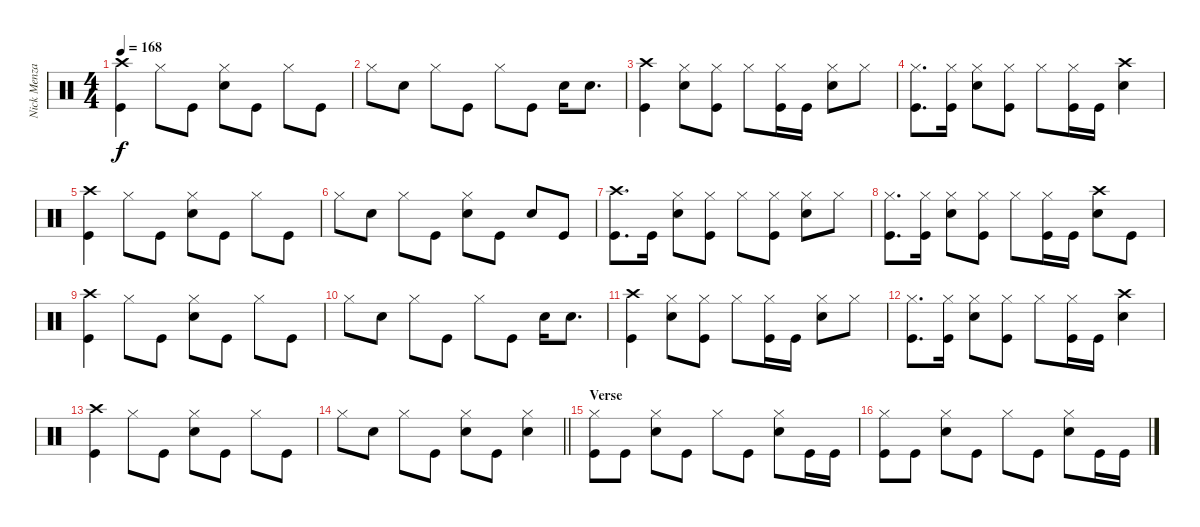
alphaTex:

\track ("Nick Menza" "Nick Menza") {instrument percussion}
\staff {score}
\articulation defaults
\ts (4 4)
\tempo 168
\clef neutral
\ks c
("Kick (hit)" "Crash high (hit)").4{dy f} "Hi-Hat (closed)".8 "Kick (hit)".8 ("Hi-Hat (closed)" "Snare (hit) 2").8 "Kick (hit)".8 "Hi-Hat (closed)".8 "Kick (hit)".8 |
"Hi-Hat (closed)".8 "Snare (hit) 2".8 "Hi-Hat (closed)".8 "Kick (hit)".8 "Hi-Hat (closed)".8 "Kick (hit)".8 "Snare (hit) 2".16 "Snare (hit) 2".8{d} |
("Kick (hit)" "Crash high (hit)").4 ("Hi-Hat (closed)" "Snare (hit) 2").8 ("Kick (hit)" "Hi-Hat (closed)").8 "Hi-Hat (closed)".8 ("Kick (hit)" "Hi-Hat (closed)").16 "Kick (hit)".16 ("Hi-Hat (closed)" "Snare (hit) 2").8 "Hi-Hat (closed)".8 |
("Kick (hit)" "Hi-Hat (closed)").8{d} ("Kick (hit)" "Hi-Hat (closed)").16 ("Hi-Hat (closed)" "Snare (hit) 2").8 ("Kick (hit)" "Hi-Hat (closed)").8 "Hi-Hat (closed)".8 ("Kick (hit)" "Hi-Hat (closed)").16 "Kick (hit)".16 ("Snare (hit) 2" "Crash high (hit)").4 |
("Kick (hit)" "Crash high (hit)").4 "Hi-Hat (closed)".8 "Kick (hit)".8 ("Hi-Hat (closed)" "Snare (hit) 2").8 "Kick (hit)".8 "Hi-Hat (closed)".8 "Kick (hit)".8 |
"Hi-Hat (closed)".8 "Snare (hit) 2".8 "Hi-Hat (closed)".8 "Kick (hit)".8 ("Hi-Hat (closed)" "Snare (hit) 2").8 "Kick (hit)".8 "Snare (hit) 2".8 "Kick (hit)".8 |
("Kick (hit)" "Crash high (hit)").8{d} "Kick (hit)".16 ("Hi-Hat (closed)" "Snare (hit) 2").8 ("Kick (hit)" "Hi-Hat (closed)").8 "Hi-Hat (closed)".8 ("Kick (hit)" "Hi-Hat (closed)").8 ("Hi-Hat (closed)" "Snare (hit) 2").8 "Hi-Hat (closed)".8 |
("Kick (hit)" "Hi-Hat (closed)").8{d} ("Kick (hit)" "Hi-Hat (closed)").16 ("Hi-Hat (closed)" "Snare (hit) 2").8 ("Kick (hit)" "Hi-Hat (closed)").8 "Hi-Hat (closed)".8 ("Kick (hit)" "Hi-Hat (closed)").16 "Kick (hit)".16 ("Snare (hit) 2" "Crash high (hit)").8 "Kick (hit)".8 |
("Kick (hit)" "Crash high (hit)").4 "Hi-Hat (closed)".8 "Kick (hit)".8 ("Hi-Hat (closed)" "Snare (hit) 2").8 "Kick (hit)".8 "Hi-Hat (closed)".8 "Kick (hit)".8 |
"Hi-Hat (closed)".8 "Snare (hit) 2".8 "Hi-Hat (closed)".8 "Kick (hit)".8 "Hi-Hat (closed)".8 "Kick (hit)".8 "Snare (hit) 2".16 "Snare (hit) 2".8{d} |
("Kick (hit)" "Crash high (hit)").4 ("Hi-Hat (closed)" "Snare (hit) 2").8 ("Kick (hit)" "Hi-Hat (closed)").8 "Hi-Hat (closed)".8 ("Kick (hit)" "Hi-Hat (closed)").16 "Kick (hit)".16 ("Hi-Hat (closed)" "Snare (hit) 2").8 "Hi-Hat (closed)".8 |
("Kick (hit)" "Hi-Hat (closed)").8{d} ("Kick (hit)" "Hi-Hat (closed)").16 ("Hi-Hat (closed)" "Snare (hit) 2").8 ("Kick (hit)" "Hi-Hat (closed)").8 "Hi-Hat (closed)".8 ("Kick (hit)" "Hi-Hat (closed)").16 "Kick (hit)".16 ("Snare (hit) 2" "Crash high (hit)").4 |
("Kick (hit)" "Crash high (hit)").4 "Hi-Hat (closed)".8 "Kick (hit)".8 ("Hi-Hat (closed)" "Snare (hit) 2").8 "Kick (hit)".8 "Hi-Hat (closed)".8 "Kick (hit)".8 |
\barLineRight lightlight "Hi-Hat (closed)".8 "Snare (hit) 2".8 "Hi-Hat (closed)".8 "Kick (hit)".8
("Hi-Hat (closed)" "Snare (hit) 2").8 "Kick (hit)".8 ("Hi-Hat (closed)" "Snare (hit) 2").4 |
\section ("" "Verse")
("Kick (hit)" "Hi-Hat (closed)").8 "Kick (hit)".8 ("Hi-Hat (closed)" "Snare (hit) 2").8 "Kick (hit)".8 "Hi-Hat (closed)".8 "Kick (hit)".8 ("Hi-Hat (closed)" "Snare (hit) 2").8 "Kick (hit)".16 "Kick (hit)".16 |
("Kick (hit)" "Hi-Hat (closed)").8 "Kick (hit)".8 ("Hi-Hat (closed)" "Snare (hit) 2").8 "Kick (hit)".8 "Hi-Hat (closed)".8 "Kick (hit)".8 ("Hi-Hat (closed)" "Snare (hit) 2").8 "Kick (hit)".16 "Kick (hit)".16
